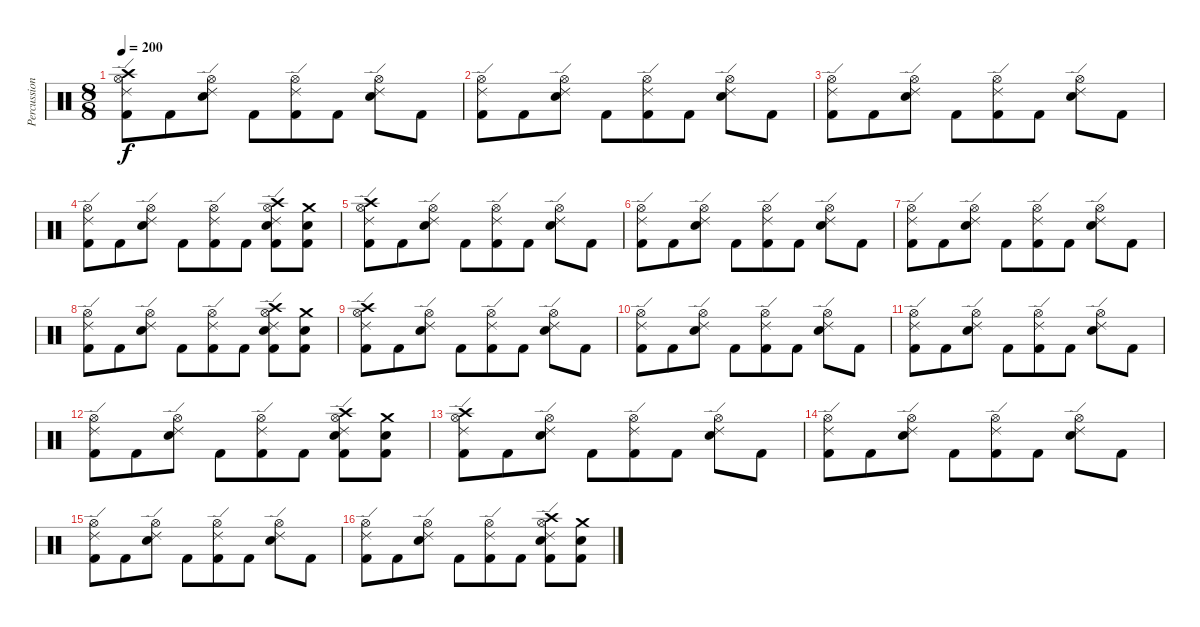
\track ("Percussions" "Percussion") {instrument percussion}
\staff {score}
\articulation defaults
\ts (8 8)
\tempo 200
\clef neutral
\ks c
("Crash high (hit)" "Hi-Hat (open)" "Ride (edge) 2" "Kick (hit) 2").8{dy f} "Kick (hit) 2".8 ("Hi-Hat (open)" "Ride (edge) 2" "Electric Snare (hit)").8 "Kick (hit) 2".8 ("Hi-Hat (open)" "Ride (edge) 2" "Kick (hit) 2").8 "Kick (hit) 2".8 ("Hi-Hat (open)" "Ride (edge) 2" "Electric Snare (hit)").8 "Kick (hit) 2".8 |
("Hi-Hat (open)" "Ride (edge) 2" "Kick (hit) 2").8 "Kick (hit) 2".8 ("Hi-Hat (open)" "Ride (edge) 2" "Electric Snare (hit)").8 "Kick (hit) 2".8 ("Hi-Hat (open)" "Ride (edge) 2" "Kick (hit) 2").8 "Kick (hit) 2".8 ("Hi-Hat (open)" "Ride (edge) 2" "Electric Snare (hit)").8 "Kick (hit) 2".8 |
("Hi-Hat (open)" "Ride (edge) 2" "Kick (hit) 2").8 "Kick (hit) 2".8 ("Hi-Hat (open)" "Ride (edge) 2" "Electric Snare (hit)").8 "Kick (hit) 2".8 ("Hi-Hat (open)" "Ride (edge) 2" "Kick (hit) 2").8 "Kick (hit) 2".8 ("Hi-Hat (open)" "Ride (edge) 2" "Electric Snare (hit)").8 "Kick (hit) 2".8 |
("Hi-Hat (open)" "Ride (edge) 2" "Kick (hit) 2").8 "Kick (hit) 2".8 ("Hi-Hat (open)" "Ride (edge) 2" "Electric Snare (hit)").8 "Kick (hit) 2".8 ("Hi-Hat (open)" "Ride (edge) 2" "Kick (hit) 2").8 "Kick (hit) 2".8 ("Crash high (hit)" "Hi-Hat (open)" "Ride (edge) 2" "Electric Snare (hit)" "Kick (hit) 2").8 ("Crash medium (hit)" "Electric Snare (hit)" "Kick (hit) 2").8 |
("Crash high (hit)" "Hi-Hat (open)" "Ride (edge) 2" "Kick (hit) 2").8 "Kick (hit) 2".8 ("Hi-Hat (open)" "Ride (edge) 2" "Electric Snare (hit)").8 "Kick (hit) 2".8 ("Hi-Hat (open)" "Ride (edge) 2" "Kick (hit) 2").8 "Kick (hit) 2".8 ("Hi-Hat (open)" "Ride (edge) 2" "Electric Snare (hit)").8 "Kick (hit) 2".8 |
("Hi-Hat (open)" "Ride (edge) 2" "Kick (hit) 2").8 "Kick (hit) 2".8 ("Hi-Hat (open)" "Ride (edge) 2" "Electric Snare (hit)").8 "Kick (hit) 2".8 ("Hi-Hat (open)" "Ride (edge) 2" "Kick (hit) 2").8 "Kick (hit) 2".8 ("Hi-Hat (open)" "Ride (edge) 2" "Electric Snare (hit)").8 "Kick (hit) 2".8 |
("Hi-Hat (open)" "Ride (edge) 2" "Kick (hit) 2").8 "Kick (hit) 2".8 ("Hi-Hat (open)" "Ride (edge) 2" "Electric Snare (hit)").8 "Kick (hit) 2".8 ("Hi-Hat (open)" "Ride (edge) 2" "Kick (hit) 2").8 "Kick (hit) 2".8 ("Hi-Hat (open)" "Ride (edge) 2" "Electric Snare (hit)").8 "Kick (hit) 2".8 |
("Hi-Hat (open)" "Ride (edge) 2" "Kick (hit) 2").8 "Kick (hit) 2".8 ("Hi-Hat (open)" "Ride (edge) 2" "Electric Snare (hit)").8 "Kick (hit) 2".8 ("Hi-Hat (open)" "Ride (edge) 2" "Kick (hit) 2").8 "Kick (hit) 2".8 ("Crash high (hit)" "Hi-Hat (open)" "Ride (edge) 2" "Electric Snare (hit)" "Kick (hit) 2").8 ("Crash medium (hit)" "Electric Snare (hit)" "Kick (hit) 2").8 |
("Crash high (hit)" "Hi-Hat (open)" "Ride (edge) 2" "Kick (hit) 2").8 "Kick (hit) 2".8 ("Hi-Hat (open)" "Ride (edge) 2" "Electric Snare (hit)").8 "Kick (hit) 2".8 ("Hi-Hat (open)" "Ride (edge) 2" "Kick (hit) 2").8 "Kick (hit) 2".8 ("Hi-Hat (open)" "Ride (edge) 2" "Electric Snare (hit)").8 "Kick (hit) 2".8 |
("Hi-Hat (open)" "Ride (edge) 2" "Kick (hit) 2").8 "Kick (hit) 2".8 ("Hi-Hat (open)" "Ride (edge) 2" "Electric Snare (hit)").8 "Kick (hit) 2".8 ("Hi-Hat (open)" "Ride (edge) 2" "Kick (hit) 2").8 "Kick (hit) 2".8 ("Hi-Hat (open)" "Ride (edge) 2" "Electric Snare (hit)").8 "Kick (hit) 2".8 |
("Hi-Hat (open)" "Ride (edge) 2" "Kick (hit) 2").8 "Kick (hit) 2".8 ("Hi-Hat (open)" "Ride (edge) 2" "Electric Snare (hit)").8 "Kick (hit) 2".8 ("Hi-Hat (open)" "Ride (edge) 2" "Kick (hit) 2").8 "Kick (hit) 2".8 ("Hi-Hat (open)" "Ride (edge) 2" "Electric Snare (hit)").8 "Kick (hit) 2".8 |
("Hi-Hat (open)" "Ride (edge) 2" "Kick (hit) 2").8 "Kick (hit) 2".8 ("Hi-Hat (open)" "Ride (edge) 2" "Electric Snare (hit)").8 "Kick (hit) 2".8 ("Hi-Hat (open)" "Ride (edge) 2" "Kick (hit) 2").8 "Kick (hit) 2".8 ("Crash high (hit)" "Hi-Hat (open)" "Ride (edge) 2" "Electric Snare (hit)" "Kick (hit) 2").8 ("Crash medium (hit)" "Electric Snare (hit)" "Kick (hit) 2").8 |
("Crash high (hit)" "Hi-Hat (open)" "Ride (edge) 2" "Kick (hit) 2").8 "Kick (hit) 2".8 ("Hi-Hat (open)" "Ride (edge) 2" "Electric Snare (hit)").8 "Kick (hit) 2".8 ("Hi-Hat (open)" "Ride (edge) 2" "Kick (hit) 2").8 "Kick (hit) 2".8 ("Hi-Hat (open)" "Ride (edge) 2" "Electric Snare (hit)").8 "Kick (hit) 2".8 |
("Hi-Hat (open)" "Ride (edge) 2" "Kick (hit) 2").8 "Kick (hit) 2".8 ("Hi-Hat (open)" "Ride (edge) 2" "Electric Snare (hit)").8 "Kick (hit) 2".8 ("Hi-Hat (open)" "Ride (edge) 2" "Kick (hit) 2").8 "Kick (hit) 2".8 ("Hi-Hat (open)" "Ride (edge) 2" "Electric Snare (hit)").8 "Kick (hit) 2".8 |
("Hi-Hat (open)" "Ride (edge) 2" "Kick (hit) 2").8 "Kick (hit) 2".8 ("Hi-Hat (open)" "Ride (edge) 2" "Electric Snare (hit)").8 "Kick (hit) 2".8 ("Hi-Hat (open)" "Ride (edge) 2" "Kick (hit) 2").8 "Kick (hit) 2".8 ("Hi-Hat (open)" "Ride (edge) 2" "Electric Snare (hit)").8 "Kick (hit) 2".8 |
("Hi-Hat (open)" "Ride (edge) 2" "Kick (hit) 2").8 "Kick (hit) 2".8 ("Hi-Hat (open)" "Ride (edge) 2" "Electric Snare (hit)").8 "Kick (hit) 2".8 ("Hi-Hat (open)" "Ride (edge) 2" "Kick (hit) 2").8 "Kick (hit) 2".8 ("Crash high (hit)" "Hi-Hat (open)" "Ride (edge) 2" "Electric Snare (hit)" "Kick (hit) 2").8 ("Crash medium (hit)" "Electric Snare (hit)" "Kick (hit) 2").8
